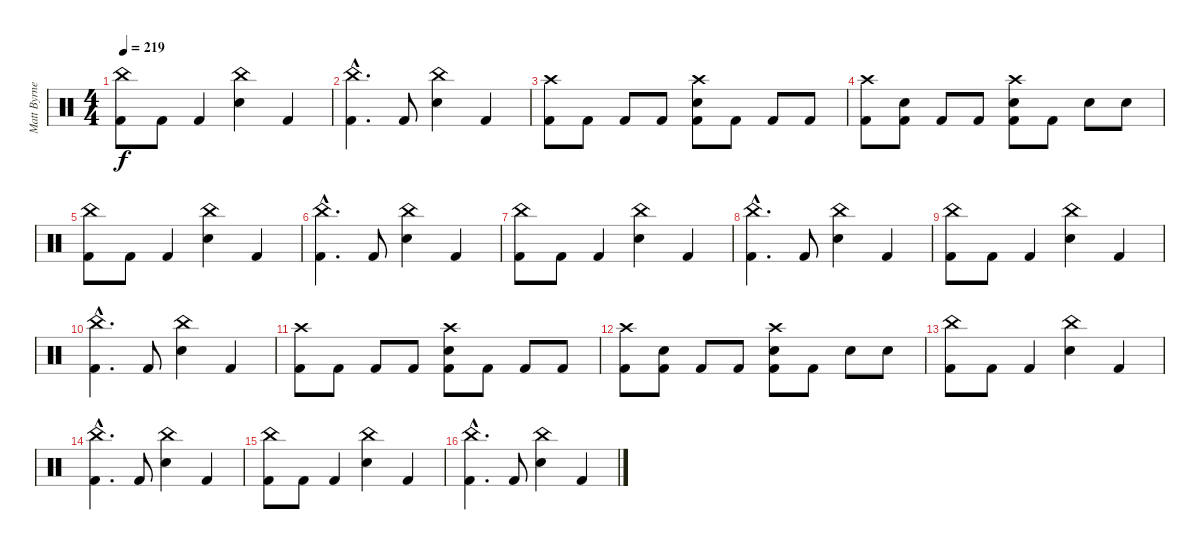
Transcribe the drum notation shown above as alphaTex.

\track ("Matt Byrne (Drums)" "Matt Byrne") {instrument percussion}
\staff {score}
\articulation defaults
\ts (4 4)
\tempo 219
\clef neutral
\ks c
("China (hit)" "Kick (hit) 2").8{dy f} "Kick (hit) 2".8 "Kick (hit) 2".4 ("China (hit)" "Snare (hit) 2").4 "Kick (hit) 2".4 |
("China (hit)"{hac} "Kick (hit) 2"{hac}).4{d} "Kick (hit) 2".8 ("China (hit)" "Snare (hit) 2").4 "Kick (hit) 2".4 |
("Crash high (hit)" "Kick (hit) 2").8 "Kick (hit) 2".8 "Kick (hit) 2".8 "Kick (hit) 2".8 ("Crash high (hit)" "Snare (hit) 2" "Kick (hit) 2").8 "Kick (hit) 2".8 "Kick (hit) 2".8 "Kick (hit) 2".8 |
("Crash high (hit)" "Kick (hit) 2").8 ("Snare (hit) 2" "Kick (hit) 2").8 "Kick (hit) 2".8 "Kick (hit) 2".8 ("Snare (hit) 2" "Crash high (hit)" "Kick (hit) 2").8 "Kick (hit) 2".8 "Snare (hit) 2".8 "Snare (hit) 2".8 |
("China (hit)" "Kick (hit) 2").8 "Kick (hit) 2".8 "Kick (hit) 2".4 ("China (hit)" "Snare (hit) 2").4 "Kick (hit) 2".4 |
("China (hit)"{hac} "Kick (hit) 2"{hac}).4{d} "Kick (hit) 2".8 ("China (hit)" "Snare (hit) 2").4 "Kick (hit) 2".4 |
("China (hit)" "Kick (hit) 2").8 "Kick (hit) 2".8 "Kick (hit) 2".4 ("China (hit)" "Snare (hit) 2").4 "Kick (hit) 2".4 |
("China (hit)"{hac} "Kick (hit) 2"{hac}).4{d} "Kick (hit) 2".8 ("China (hit)" "Snare (hit) 2").4 "Kick (hit) 2".4 |
("China (hit)" "Kick (hit) 2").8 "Kick (hit) 2".8 "Kick (hit) 2".4 ("China (hit)" "Snare (hit) 2").4 "Kick (hit) 2".4 |
("China (hit)"{hac} "Kick (hit) 2"{hac}).4{d} "Kick (hit) 2".8 ("China (hit)" "Snare (hit) 2").4 "Kick (hit) 2".4 |
("Crash high (hit)" "Kick (hit) 2").8 "Kick (hit) 2".8 "Kick (hit) 2".8 "Kick (hit) 2".8 ("Crash high (hit)" "Snare (hit) 2" "Kick (hit) 2").8 "Kick (hit) 2".8 "Kick (hit) 2".8 "Kick (hit) 2".8 |
("Crash high (hit)" "Kick (hit) 2").8 ("Snare (hit) 2" "Kick (hit) 2").8 "Kick (hit) 2".8 "Kick (hit) 2".8 ("Snare (hit) 2" "Crash high (hit)" "Kick (hit) 2").8 "Kick (hit) 2".8 "Snare (hit) 2".8 "Snare (hit) 2".8 |
("China (hit)" "Kick (hit) 2").8 "Kick (hit) 2".8 "Kick (hit) 2".4 ("China (hit)" "Snare (hit) 2").4 "Kick (hit) 2".4 |
("China (hit)"{hac} "Kick (hit) 2"{hac}).4{d} "Kick (hit) 2".8 ("China (hit)" "Snare (hit) 2").4 "Kick (hit) 2".4 |
("China (hit)" "Kick (hit) 2").8 "Kick (hit) 2".8 "Kick (hit) 2".4 ("China (hit)" "Snare (hit) 2").4 "Kick (hit) 2".4 |
("China (hit)"{hac} "Kick (hit) 2"{hac}).4{d} "Kick (hit) 2".8 ("China (hit)" "Snare (hit) 2").4 "Kick (hit) 2".4
